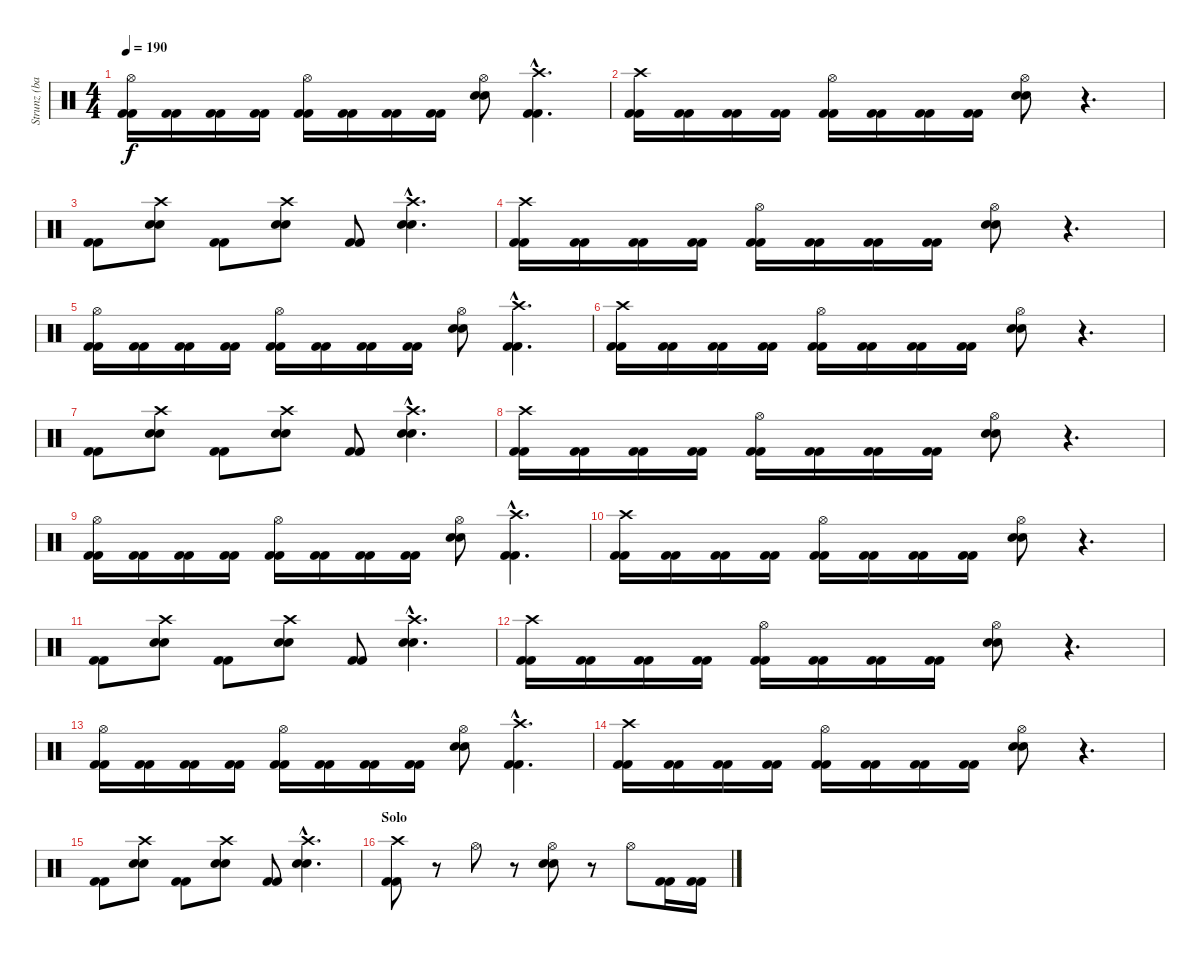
\track ("Strunz (bateria)" "Strunz (ba") {instrument percussion}
\staff {score}
\articulation defaults
\ts (4 4)
\tempo 190
\clef neutral
\ks c
("Hi-Hat (open)" "Kick (hit) 2" "Kick (hit) 2").16{dy f} ("Kick (hit) 2" "Kick (hit) 2").16 ("Kick (hit) 2" "Kick (hit) 2").16 ("Kick (hit) 2" "Kick (hit) 2").16 ("Hi-Hat (open)" "Kick (hit) 2" "Kick (hit) 2").16 ("Kick (hit) 2" "Kick (hit) 2").16 ("Kick (hit) 2" "Kick (hit) 2").16 ("Kick (hit) 2" "Kick (hit) 2").16 ("Hi-Hat (open)" "Snare (hit) 2" "Snare (hit) 2").8 ("Crash high (hit)"{hac} "Kick (hit) 2"{hac} "Kick (hit) 2"{hac}).4{d} |
("Crash high (hit)" "Kick (hit) 2" "Kick (hit) 2").16 ("Kick (hit) 2" "Kick (hit) 2").16 ("Kick (hit) 2" "Kick (hit) 2").16 ("Kick (hit) 2" "Kick (hit) 2").16 ("Hi-Hat (open)" "Kick (hit) 2" "Kick (hit) 2").16 ("Kick (hit) 2" "Kick (hit) 2").16 ("Kick (hit) 2" "Kick (hit) 2").16 ("Kick (hit) 2" "Kick (hit) 2").16 ("Hi-Hat (open)" "Snare (hit) 2" "Snare (hit) 2").8 r.4{d} |
("Kick (hit) 2" "Kick (hit) 2").8 ("Crash high (hit)" "Snare (hit) 2" "Snare (hit) 2").8 ("Kick (hit) 2" "Kick (hit) 2").8 ("Crash high (hit)" "Snare (hit) 2" "Snare (hit) 2").8 ("Kick (hit) 2" "Kick (hit) 2").8 ("Crash high (hit)"{hac} "Snare (hit) 2"{hac} "Snare (hit) 2"{hac}).4{d} |
("Crash high (hit)" "Kick (hit) 2" "Kick (hit) 2").16 ("Kick (hit) 2" "Kick (hit) 2").16 ("Kick (hit) 2" "Kick (hit) 2").16 ("Kick (hit) 2" "Kick (hit) 2").16 ("Hi-Hat (open)" "Kick (hit) 2" "Kick (hit) 2").16 ("Kick (hit) 2" "Kick (hit) 2").16 ("Kick (hit) 2" "Kick (hit) 2").16 ("Kick (hit) 2" "Kick (hit) 2").16 ("Hi-Hat (open)" "Snare (hit) 2" "Snare (hit) 2").8 r.4{d} |
("Hi-Hat (open)" "Kick (hit) 2" "Kick (hit) 2").16 ("Kick (hit) 2" "Kick (hit) 2").16 ("Kick (hit) 2" "Kick (hit) 2").16 ("Kick (hit) 2" "Kick (hit) 2").16 ("Hi-Hat (open)" "Kick (hit) 2" "Kick (hit) 2").16 ("Kick (hit) 2" "Kick (hit) 2").16 ("Kick (hit) 2" "Kick (hit) 2").16 ("Kick (hit) 2" "Kick (hit) 2").16 ("Hi-Hat (open)" "Snare (hit) 2" "Snare (hit) 2").8 ("Crash high (hit)"{hac} "Kick (hit) 2"{hac} "Kick (hit) 2"{hac}).4{d} |
("Crash high (hit)" "Kick (hit) 2" "Kick (hit) 2").16 ("Kick (hit) 2" "Kick (hit) 2").16 ("Kick (hit) 2" "Kick (hit) 2").16 ("Kick (hit) 2" "Kick (hit) 2").16 ("Hi-Hat (open)" "Kick (hit) 2" "Kick (hit) 2").16 ("Kick (hit) 2" "Kick (hit) 2").16 ("Kick (hit) 2" "Kick (hit) 2").16 ("Kick (hit) 2" "Kick (hit) 2").16 ("Hi-Hat (open)" "Snare (hit) 2" "Snare (hit) 2").8 r.4{d} |
("Kick (hit) 2" "Kick (hit) 2").8 ("Crash high (hit)" "Snare (hit) 2" "Snare (hit) 2").8 ("Kick (hit) 2" "Kick (hit) 2").8 ("Crash high (hit)" "Snare (hit) 2" "Snare (hit) 2").8 ("Kick (hit) 2" "Kick (hit) 2").8 ("Crash high (hit)"{hac} "Snare (hit) 2"{hac} "Snare (hit) 2"{hac}).4{d} |
("Crash high (hit)" "Kick (hit) 2" "Kick (hit) 2").16 ("Kick (hit) 2" "Kick (hit) 2").16 ("Kick (hit) 2" "Kick (hit) 2").16 ("Kick (hit) 2" "Kick (hit) 2").16 ("Hi-Hat (open)" "Kick (hit) 2" "Kick (hit) 2").16 ("Kick (hit) 2" "Kick (hit) 2").16 ("Kick (hit) 2" "Kick (hit) 2").16 ("Kick (hit) 2" "Kick (hit) 2").16 ("Hi-Hat (open)" "Snare (hit) 2" "Snare (hit) 2").8 r.4{d} |
("Hi-Hat (open)" "Kick (hit) 2" "Kick (hit) 2").16 ("Kick (hit) 2" "Kick (hit) 2").16 ("Kick (hit) 2" "Kick (hit) 2").16 ("Kick (hit) 2" "Kick (hit) 2").16 ("Hi-Hat (open)" "Kick (hit) 2" "Kick (hit) 2").16 ("Kick (hit) 2" "Kick (hit) 2").16 ("Kick (hit) 2" "Kick (hit) 2").16 ("Kick (hit) 2" "Kick (hit) 2").16 ("Hi-Hat (open)" "Snare (hit) 2" "Snare (hit) 2").8 ("Crash high (hit)"{hac} "Kick (hit) 2"{hac} "Kick (hit) 2"{hac}).4{d} |
("Crash high (hit)" "Kick (hit) 2" "Kick (hit) 2").16 ("Kick (hit) 2" "Kick (hit) 2").16 ("Kick (hit) 2" "Kick (hit) 2").16 ("Kick (hit) 2" "Kick (hit) 2").16 ("Hi-Hat (open)" "Kick (hit) 2" "Kick (hit) 2").16 ("Kick (hit) 2" "Kick (hit) 2").16 ("Kick (hit) 2" "Kick (hit) 2").16 ("Kick (hit) 2" "Kick (hit) 2").16 ("Hi-Hat (open)" "Snare (hit) 2" "Snare (hit) 2").8 r.4{d} |
("Kick (hit) 2" "Kick (hit) 2").8 ("Crash high (hit)" "Snare (hit) 2" "Snare (hit) 2").8 ("Kick (hit) 2" "Kick (hit) 2").8 ("Crash high (hit)" "Snare (hit) 2" "Snare (hit) 2").8 ("Kick (hit) 2" "Kick (hit) 2").8 ("Crash high (hit)"{hac} "Snare (hit) 2"{hac} "Snare (hit) 2"{hac}).4{d} |
("Crash high (hit)" "Kick (hit) 2" "Kick (hit) 2").16 ("Kick (hit) 2" "Kick (hit) 2").16 ("Kick (hit) 2" "Kick (hit) 2").16 ("Kick (hit) 2" "Kick (hit) 2").16 ("Hi-Hat (open)" "Kick (hit) 2" "Kick (hit) 2").16 ("Kick (hit) 2" "Kick (hit) 2").16 ("Kick (hit) 2" "Kick (hit) 2").16 ("Kick (hit) 2" "Kick (hit) 2").16 ("Hi-Hat (open)" "Snare (hit) 2" "Snare (hit) 2").8 r.4{d} |
("Hi-Hat (open)" "Kick (hit) 2" "Kick (hit) 2").16 ("Kick (hit) 2" "Kick (hit) 2").16 ("Kick (hit) 2" "Kick (hit) 2").16 ("Kick (hit) 2" "Kick (hit) 2").16 ("Hi-Hat (open)" "Kick (hit) 2" "Kick (hit) 2").16 ("Kick (hit) 2" "Kick (hit) 2").16 ("Kick (hit) 2" "Kick (hit) 2").16 ("Kick (hit) 2" "Kick (hit) 2").16 ("Hi-Hat (open)" "Snare (hit) 2" "Snare (hit) 2").8 ("Crash high (hit)"{hac} "Kick (hit) 2"{hac} "Kick (hit) 2"{hac}).4{d} |
("Crash high (hit)" "Kick (hit) 2" "Kick (hit) 2").16 ("Kick (hit) 2" "Kick (hit) 2").16 ("Kick (hit) 2" "Kick (hit) 2").16 ("Kick (hit) 2" "Kick (hit) 2").16 ("Hi-Hat (open)" "Kick (hit) 2" "Kick (hit) 2").16 ("Kick (hit) 2" "Kick (hit) 2").16 ("Kick (hit) 2" "Kick (hit) 2").16 ("Kick (hit) 2" "Kick (hit) 2").16 ("Hi-Hat (open)" "Snare (hit) 2" "Snare (hit) 2").8 r.4{d} |
("Kick (hit) 2" "Kick (hit) 2").8 ("Crash high (hit)" "Snare (hit) 2" "Snare (hit) 2").8 ("Kick (hit) 2" "Kick (hit) 2").8 ("Crash high (hit)" "Snare (hit) 2" "Snare (hit) 2").8 ("Kick (hit) 2" "Kick (hit) 2").8 ("Crash high (hit)"{hac} "Snare (hit) 2"{hac} "Snare (hit) 2"{hac}).4{d} |
\section ("" "Solo")
("Crash high (hit)" "Kick (hit) 2" "Kick (hit) 2").8 r.8 "Hi-Hat (open)".8 r.8 ("Hi-Hat (open)" "Snare (hit) 2" "Snare (hit) 2").8 r.8 "Hi-Hat (open)".8 ("Kick (hit) 2" "Kick (hit) 2").16 ("Kick (hit) 2" "Kick (hit) 2").16
